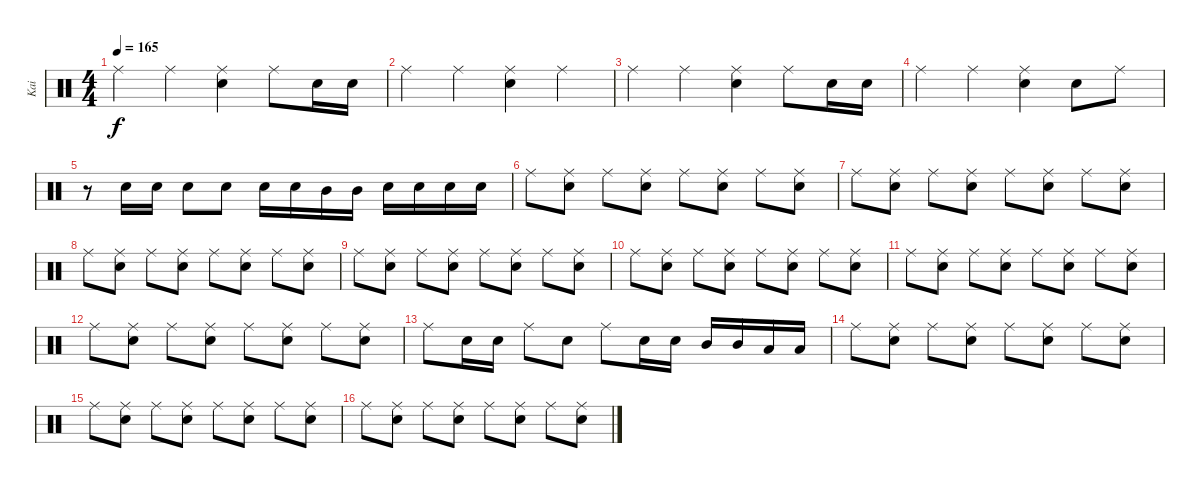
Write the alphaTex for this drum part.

\track ("Kai" "Kai") {instrument percussion}
\staff {score}
\articulation defaults
\ts (4 4)
\tempo 165
\clef neutral
\ks c "Ride (middle)".4{dy f} "Ride (middle)".4
("Ride (middle)" "Snare (hit) 2").4 "Ride (middle)".8 "Snare (hit) 2".16 "Snare (hit) 2".16 |
"Ride (middle)".4 "Ride (middle)".4 ("Ride (middle)" "Snare (hit) 2").4 "Ride (middle)".4 |
"Ride (middle)".4 "Ride (middle)".4 ("Ride (middle)" "Snare (hit) 2").4 "Ride (middle)".8 "Snare (hit) 2".16 "Snare (hit) 2".16 |
"Ride (middle)".4 "Ride (middle)".4 ("Ride (middle)" "Snare (hit) 2").4 "Snare (hit) 2".8 "Ride (middle)".8 |
r.8 "Snare (hit) 2".16 "Snare (hit) 2".16 "Snare (hit) 2".8 "Snare (hit) 2".8 "Snare (hit) 2".16 "Snare (hit) 2".16 "Mid Tom (hit)".16 "Mid Tom (hit)".16 "Snare (hit) 2".16 "Snare (hit) 2".16 "Snare (hit) 2".16 "Snare (hit) 2".16 |
"Ride (middle)".8 ("Ride (middle)" "Snare (hit) 2").8 "Ride (middle)".8 ("Ride (middle)" "Snare (hit) 2").8 "Ride (middle)".8 ("Ride (middle)" "Snare (hit) 2").8 "Ride (middle)".8 ("Ride (middle)" "Snare (hit) 2").8 |
"Ride (middle)".8 ("Ride (middle)" "Snare (hit) 2").8 "Ride (middle)".8 ("Ride (middle)" "Snare (hit) 2").8 "Ride (middle)".8 ("Ride (middle)" "Snare (hit) 2").8 "Ride (middle)".8 ("Ride (middle)" "Snare (hit) 2").8 |
"Ride (middle)".8 ("Ride (middle)" "Snare (hit) 2").8 "Ride (middle)".8 ("Ride (middle)" "Snare (hit) 2").8 "Ride (middle)".8 ("Ride (middle)" "Snare (hit) 2").8 "Ride (middle)".8 ("Ride (middle)" "Snare (hit) 2").8 |
"Ride (middle)".8 ("Ride (middle)" "Snare (hit) 2").8 "Ride (middle)".8 ("Ride (middle)" "Snare (hit) 2").8 "Ride (middle)".8 ("Ride (middle)" "Snare (hit) 2").8 "Ride (middle)".8 ("Ride (middle)" "Snare (hit) 2").8 |
"Ride (middle)".8 ("Ride (middle)" "Snare (hit) 2").8 "Ride (middle)".8 ("Ride (middle)" "Snare (hit) 2").8 "Ride (middle)".8 ("Ride (middle)" "Snare (hit) 2").8 "Ride (middle)".8 ("Ride (middle)" "Snare (hit) 2").8 |
"Ride (middle)".8 ("Ride (middle)" "Snare (hit) 2").8 "Ride (middle)".8 ("Ride (middle)" "Snare (hit) 2").8 "Ride (middle)".8 ("Ride (middle)" "Snare (hit) 2").8 "Ride (middle)".8 ("Ride (middle)" "Snare (hit) 2").8 |
"Ride (middle)".8 ("Ride (middle)" "Snare (hit) 2").8 "Ride (middle)".8 ("Ride (middle)" "Snare (hit) 2").8 "Ride (middle)".8 ("Ride (middle)" "Snare (hit) 2").8 "Ride (middle)".8 ("Ride (middle)" "Snare (hit) 2").8 |
"Ride (middle)".8 "Snare (hit) 2".16 "Snare (hit) 2".16 "Ride (middle)".8 "Snare (hit) 2".8 "Ride (middle)".8 "Snare (hit) 2".16 "Snare (hit) 2".16 "Mid Tom (hit)".16 "Mid Tom (hit)".16 "Low Tom (hit)".16 "Low Tom (hit)".16 |
"Ride (middle)".8 ("Ride (middle)" "Snare (hit) 2").8 "Ride (middle)".8 ("Ride (middle)" "Snare (hit) 2").8 "Ride (middle)".8 ("Ride (middle)" "Snare (hit) 2").8 "Ride (middle)".8 ("Ride (middle)" "Snare (hit) 2").8 |
"Ride (middle)".8 ("Ride (middle)" "Snare (hit) 2").8 "Ride (middle)".8 ("Ride (middle)" "Snare (hit) 2").8 "Ride (middle)".8 ("Ride (middle)" "Snare (hit) 2").8 "Ride (middle)".8 ("Ride (middle)" "Snare (hit) 2").8 |
"Ride (middle)".8 ("Ride (middle)" "Snare (hit) 2").8 "Ride (middle)".8 ("Ride (middle)" "Snare (hit) 2").8 "Ride (middle)".8 ("Ride (middle)" "Snare (hit) 2").8 "Ride (middle)".8 ("Ride (middle)" "Snare (hit) 2").8
